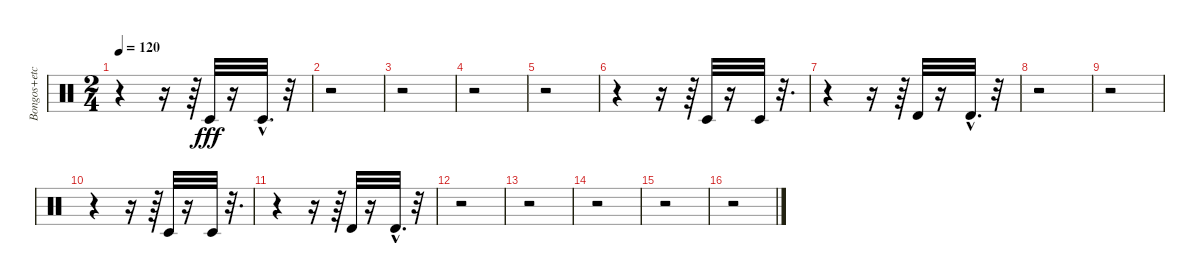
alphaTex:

\track ("Bongos+etc" "Bongos+etc") {instrument percussion}
\staff {score}
\articulation defaults
\ts (2 4)
\tempo 120
\clef neutral
\ks c
r.4{dy fff} r.16 r.64 "Timbale low (hit)".32 r.16 "Timbale low (hit)"{hac}.32{d} r.32 |
r.2 |
r.2 |
r.2 |
r.2 |
r.4 r.16 r.64 "Timbale low (hit)".32 r.16 "Timbale low (hit)".32 r.32{d} |
r.4 r.16 r.64 "Timbale high (hit)".32 r.16 "Timbale high (hit)"{hac}.32{d} r.32 |
r.2 |
r.2 |
r.4 r.16 r.64 "Timbale low (hit)".32 r.16 "Timbale low (hit)".32 r.32{d} |
r.4 r.16 r.64 "Timbale high (hit)".32 r.16 "Timbale high (hit)"{hac}.32{d} r.32 |
r.2 |
r.2 |
r.2 |
r.2 |
r.2
